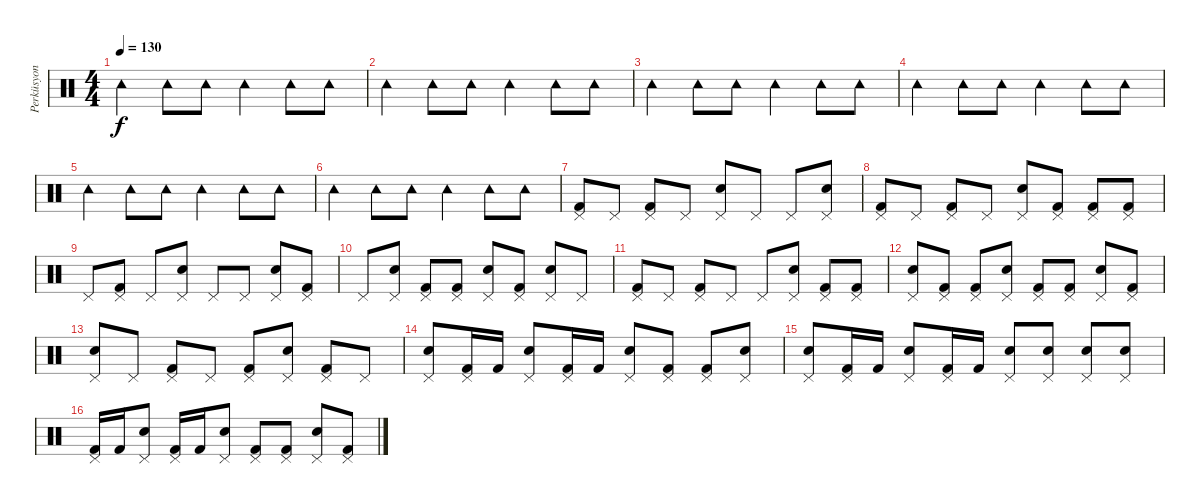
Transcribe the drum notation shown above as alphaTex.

\track ("Perküsyon" "Perküsyon") {instrument percussion}
\staff {score}
\articulation defaults
\ts (4 4)
\tempo 130
\clef neutral
\ks c "Tambourine (hit)".4{dy f} "Tambourine (hit)".8 "Tambourine (hit)".8 "Tambourine (hit)".4 "Tambourine (hit)".8 "Tambourine (hit)".8
|
"Tambourine (hit)".4 "Tambourine (hit)".8 "Tambourine (hit)".8 "Tambourine (hit)".4 "Tambourine (hit)".8 "Tambourine (hit)".8 |
"Tambourine (hit)".4 "Tambourine (hit)".8 "Tambourine (hit)".8 "Tambourine (hit)".4 "Tambourine (hit)".8 "Tambourine (hit)".8 |
"Tambourine (hit)".4 "Tambourine (hit)".8 "Tambourine (hit)".8 "Tambourine (hit)".4 "Tambourine (hit)".8 "Tambourine (hit)".8 |
"Tambourine (hit)".4 "Tambourine (hit)".8 "Tambourine (hit)".8 "Tambourine (hit)".4 "Tambourine (hit)".8 "Tambourine (hit)".8 |
"Tambourine (hit)".4 "Tambourine (hit)".8 "Tambourine (hit)".8 "Tambourine (hit)".4 "Tambourine (hit)".8 "Tambourine (hit)".8 |
("Pedal Hi-Hat (hit)" "Kick (hit) 2").8 "Pedal Hi-Hat (hit)".8 ("Pedal Hi-Hat (hit)" "Kick (hit) 2").8 "Pedal Hi-Hat (hit)".8 ("Pedal Hi-Hat (hit)" "Electric Snare (hit)").8 "Pedal Hi-Hat (hit)".8 "Pedal Hi-Hat (hit)".8 ("Pedal Hi-Hat (hit)" "Electric Snare (hit)").8 |
("Pedal Hi-Hat (hit)" "Kick (hit) 2").8 "Pedal Hi-Hat (hit)".8 ("Pedal Hi-Hat (hit)" "Kick (hit) 2").8 "Pedal Hi-Hat (hit)".8 ("Pedal Hi-Hat (hit)" "Electric Snare (hit)").8 ("Pedal Hi-Hat (hit)" "Kick (hit) 2").8 ("Pedal Hi-Hat (hit)" "Kick (hit) 2").8 ("Pedal Hi-Hat (hit)" "Kick (hit) 2").8 |
"Pedal Hi-Hat (hit)".8 ("Pedal Hi-Hat (hit)" "Kick (hit) 2").8 "Pedal Hi-Hat (hit)".8 ("Pedal Hi-Hat (hit)" "Electric Snare (hit)").8 "Pedal Hi-Hat (hit)".8 "Pedal Hi-Hat (hit)".8 ("Pedal Hi-Hat (hit)" "Electric Snare (hit)").8 ("Pedal Hi-Hat (hit)" "Kick (hit) 2").8 |
"Pedal Hi-Hat (hit)".8 ("Pedal Hi-Hat (hit)" "Electric Snare (hit)").8 ("Pedal Hi-Hat (hit)" "Kick (hit) 2").8 ("Pedal Hi-Hat (hit)" "Kick (hit) 2").8 ("Pedal Hi-Hat (hit)" "Electric Snare (hit)").8 ("Pedal Hi-Hat (hit)" "Kick (hit) 2").8 ("Pedal Hi-Hat (hit)" "Electric Snare (hit)").8 "Pedal Hi-Hat (hit)".8 |
("Pedal Hi-Hat (hit)" "Kick (hit) 2").8 "Pedal Hi-Hat (hit)".8 ("Pedal Hi-Hat (hit)" "Kick (hit) 2").8 "Pedal Hi-Hat (hit)".8 "Pedal Hi-Hat (hit)".8 ("Pedal Hi-Hat (hit)" "Electric Snare (hit)").8 ("Pedal Hi-Hat (hit)" "Kick (hit) 2").8 ("Pedal Hi-Hat (hit)" "Kick (hit) 2").8 |
("Pedal Hi-Hat (hit)" "Electric Snare (hit)").8 ("Pedal Hi-Hat (hit)" "Kick (hit) 2").8 ("Pedal Hi-Hat (hit)" "Kick (hit) 2").8 ("Pedal Hi-Hat (hit)" "Electric Snare (hit)").8 ("Pedal Hi-Hat (hit)" "Kick (hit) 2").8 ("Pedal Hi-Hat (hit)" "Kick (hit) 2").8 ("Pedal Hi-Hat (hit)" "Electric Snare (hit)").8 ("Pedal Hi-Hat (hit)" "Kick (hit) 2").8 |
("Pedal Hi-Hat (hit)" "Electric Snare (hit)").8 "Pedal Hi-Hat (hit)".8 ("Pedal Hi-Hat (hit)" "Kick (hit) 2").8 "Pedal Hi-Hat (hit)".8 ("Pedal Hi-Hat (hit)" "Kick (hit) 2").8 ("Pedal Hi-Hat (hit)" "Electric Snare (hit)").8 ("Pedal Hi-Hat (hit)" "Kick (hit) 2").8 "Pedal Hi-Hat (hit)".8 |
("Pedal Hi-Hat (hit)" "Electric Snare (hit)").8 ("Pedal Hi-Hat (hit)" "Kick (hit) 2").16 "Kick (hit) 2".16 ("Pedal Hi-Hat (hit)" "Electric Snare (hit)").8 ("Pedal Hi-Hat (hit)" "Kick (hit) 2").16 "Kick (hit) 2".16 ("Pedal Hi-Hat (hit)" "Electric Snare (hit)").8 ("Pedal Hi-Hat (hit)" "Kick (hit) 2").8 ("Pedal Hi-Hat (hit)" "Kick (hit) 2").8 ("Pedal Hi-Hat (hit)" "Electric Snare (hit)").8 |
("Pedal Hi-Hat (hit)" "Electric Snare (hit)").8 ("Pedal Hi-Hat (hit)" "Kick (hit) 2").16 "Kick (hit) 2".16 ("Pedal Hi-Hat (hit)" "Electric Snare (hit)").8 ("Pedal Hi-Hat (hit)" "Kick (hit) 2").16 "Kick (hit) 2".16 ("Pedal Hi-Hat (hit)" "Electric Snare (hit)").8 ("Pedal Hi-Hat (hit)" "Electric Snare (hit)").8 ("Pedal Hi-Hat (hit)" "Electric Snare (hit)").8 ("Pedal Hi-Hat (hit)" "Electric Snare (hit)").8 |
("Pedal Hi-Hat (hit)" "Kick (hit) 2").16 "Kick (hit) 2".16 ("Pedal Hi-Hat (hit)" "Electric Snare (hit)").8 ("Pedal Hi-Hat (hit)" "Kick (hit) 2").16 "Kick (hit) 2".16 ("Pedal Hi-Hat (hit)" "Electric Snare (hit)").8 ("Pedal Hi-Hat (hit)" "Kick (hit) 2").8 ("Pedal Hi-Hat (hit)" "Kick (hit) 2").8 ("Pedal Hi-Hat (hit)" "Electric Snare (hit)").8 ("Pedal Hi-Hat (hit)" "Kick (hit) 2").8
